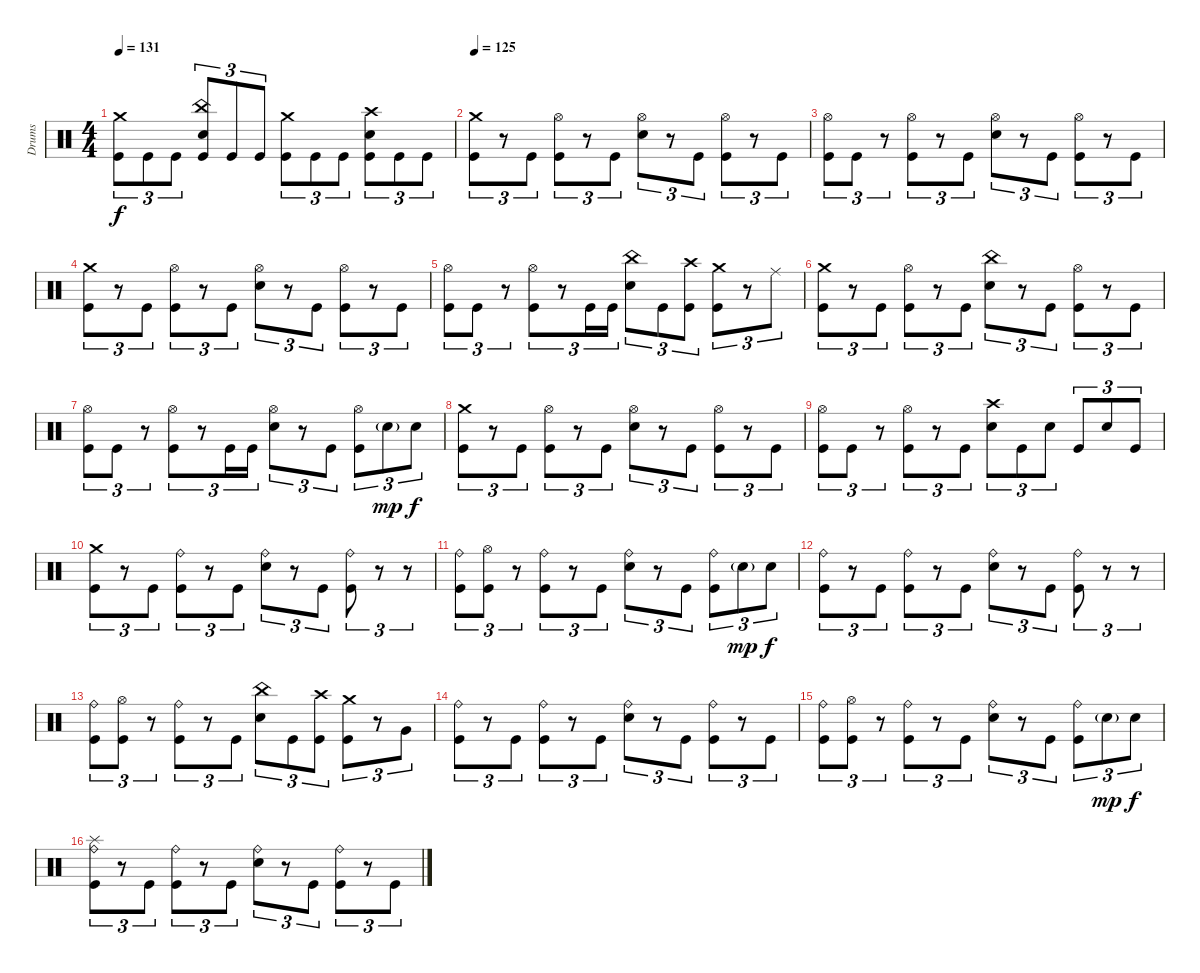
\track ("Drums" "Drums") {instrument percussion}
\staff {score}
\articulation defaults
\ts (4 4)
\tempo 131
\clef neutral
\ks c
("Crash medium (hit)" "Kick (hit)").8{tu (3 2) dy f} "Kick (hit)".8{tu (3 2)} "Kick (hit)".8{tu (3 2)} ("China (hit)" "Electric Snare (hit)" "Kick (hit)").8{tu (3 2)} "Kick (hit)".8{tu (3 2)} "Kick (hit)".8{tu (3 2)} ("Crash medium (hit)" "Kick (hit)").8{tu (3 2)} "Kick (hit)".8{tu (3 2)} "Kick (hit)".8{tu (3 2)} ("Crash high (hit)" "Electric Snare (hit)" "Kick (hit)").8{tu (3 2)} "Kick (hit)".8{tu (3 2)} "Kick (hit)".8{tu (3 2)} |
\tempo 125
("Crash medium (hit)" "Kick (hit)").8{tu (3 2)} r.8{tu (3 2)} "Kick (hit)".8{tu (3 2)} ("Hi-Hat (open)" "Kick (hit)").8{tu (3 2)} r.8{tu (3 2)} "Kick (hit)".8{tu (3 2)} ("Hi-Hat (open)" "Electric Snare (hit)").8{tu (3 2)} r.8{tu (3 2)} "Kick (hit)".8{tu (3 2)} ("Hi-Hat (open)" "Kick (hit)").8{tu (3 2)} r.8{tu (3 2)} "Kick (hit)".8{tu (3 2)} |
("Hi-Hat (open)" "Kick (hit)").8{tu (3 2)} "Kick (hit)".8{tu (3 2)} r.8{tu (3 2)} ("Hi-Hat (open)" "Kick (hit)").8{tu (3 2)} r.8{tu (3 2)} "Kick (hit)".8{tu (3 2)} ("Hi-Hat (open)" "Electric Snare (hit)").8{tu (3 2)} r.8{tu (3 2)} "Kick (hit)".8{tu (3 2)} ("Hi-Hat (open)" "Kick (hit)").8{tu (3 2)} r.8{tu (3 2)} "Kick (hit)".8{tu (3 2)} |
("Crash medium (hit)" "Kick (hit)").8{tu (3 2)} r.8{tu (3 2)} "Kick (hit)".8{tu (3 2)} ("Hi-Hat (open)" "Kick (hit)").8{tu (3 2)} r.8{tu (3 2)} "Kick (hit)".8{tu (3 2)} ("Hi-Hat (open)" "Electric Snare (hit)").8{tu (3 2)} r.8{tu (3 2)} "Kick (hit)".8{tu (3 2)} ("Hi-Hat (open)" "Kick (hit)").8{tu (3 2)} r.8{tu (3 2)} "Kick (hit)".8{tu (3 2)} |
("Hi-Hat (open)" "Kick (hit)").8{tu (3 2)} "Kick (hit)".8{tu (3 2)} r.8{tu (3 2)} ("Hi-Hat (open)" "Kick (hit)").8{tu (3 2)} r.8{tu (3 2)} "Kick (hit)".16{tu (3 2)} "Kick (hit)".16{tu (3 2)} ("China (hit)" "Electric Snare (hit)").8{tu (3 2)} "Kick (hit)".8{tu (3 2)} ("Crash high (hit)" "Kick (hit)").8{tu (3 2)} ("Crash medium (hit)" "Kick (hit)").8{tu (3 2)} r.8{tu (3 2)} "Ride (middle)".8{tu (3 2)} |
("Crash medium (hit)" "Kick (hit)").8{tu (3 2)} r.8{tu (3 2)} "Kick (hit)".8{tu (3 2)} ("Hi-Hat (open)" "Kick (hit)").8{tu (3 2)} r.8{tu (3 2)} "Kick (hit)".8{tu (3 2)} ("China (hit)" "Electric Snare (hit)").8{tu (3 2)} r.8{tu (3 2)} "Kick (hit)".8{tu (3 2)} ("Hi-Hat (open)" "Kick (hit)").8{tu (3 2)} r.8{tu (3 2)} "Kick (hit)".8{tu (3 2)} |
("Hi-Hat (open)" "Kick (hit)").8{tu (3 2)} "Kick (hit)".8{tu (3 2)} r.8{tu (3 2)} ("Hi-Hat (open)" "Kick (hit)").8{tu (3 2)} r.8{tu (3 2)} "Kick (hit)".16{tu (3 2)} "Kick (hit)".16{tu (3 2)} ("Hi-Hat (open)" "Electric Snare (hit)").8{tu (3 2)} r.8{tu (3 2)} "Kick (hit)".8{tu (3 2)} ("Hi-Hat (open)" "Kick (hit)").8{tu (3 2)} "Electric Snare (hit)"{g}.8{tu (3 2) dy mp} "Electric Snare (hit)".8{tu (3 2) dy f} |
("Crash medium (hit)" "Kick (hit)").8{tu (3 2)} r.8{tu (3 2)} "Kick (hit)".8{tu (3 2)} ("Hi-Hat (open)" "Kick (hit)").8{tu (3 2)} r.8{tu (3 2)} "Kick (hit)".8{tu (3 2)} ("Hi-Hat (open)" "Electric Snare (hit)").8{tu (3 2)} r.8{tu (3 2)} "Kick (hit)".8{tu (3 2)} ("Hi-Hat (open)" "Kick (hit)").8{tu (3 2)} r.8{tu (3 2)} "Kick (hit)".8{tu (3 2)} |
("Hi-Hat (open)" "Kick (hit)").8{tu (3 2)} "Kick (hit)".8{tu (3 2)} r.8{tu (3 2)} ("Hi-Hat (open)" "Kick (hit)").8{tu (3 2)} r.8{tu (3 2)} "Kick (hit)".8{tu (3 2)} ("Crash high (hit)" "Electric Snare (hit)").8{tu (3 2)} "Kick (hit)".8{tu (3 2)} "Electric Snare (hit)".8{tu (3 2)} "Kick (hit)".8{tu (3 2)} "Electric Snare (hit)".8{tu (3 2)} "Kick (hit)".8{tu (3 2)} |
("Crash medium (hit)" "Kick (hit)").8{tu (3 2)} r.8{tu (3 2)} "Kick (hit)".8{tu (3 2)} ("Ride (bell)" "Kick (hit)").8{tu (3 2)} r.8{tu (3 2)} "Kick (hit)".8{tu (3 2)} ("Ride (bell)" "Electric Snare (hit)").8{tu (3 2)} r.8{tu (3 2)} "Kick (hit)".8{tu (3 2)} ("Ride (bell)" "Kick (hit)").8{tu (3 2)} r.8{tu (3 2)} r.8{tu (3 2)} |
("Ride (bell)" "Kick (hit)").8{tu (3 2)} ("Hi-Hat (open)" "Kick (hit)").8{tu (3 2)} r.8{tu (3 2)} ("Ride (bell)" "Kick (hit)").8{tu (3 2)} r.8{tu (3 2)} "Kick (hit)".8{tu (3 2)} ("Ride (bell)" "Electric Snare (hit)").8{tu (3 2)} r.8{tu (3 2)} "Kick (hit)".8{tu (3 2)} ("Ride (bell)" "Kick (hit)").8{tu (3 2)} "Electric Snare (hit)"{g}.8{tu (3 2) dy mp} "Electric Snare (hit)".8{tu (3 2) dy f} |
("Ride (bell)" "Kick (hit)").8{tu (3 2)} r.8{tu (3 2)} "Kick (hit)".8{tu (3 2)} ("Ride (bell)" "Kick (hit)").8{tu (3 2)} r.8{tu (3 2)} "Kick (hit)".8{tu (3 2)} ("Ride (bell)" "Electric Snare (hit)").8{tu (3 2)} r.8{tu (3 2)} "Kick (hit)".8{tu (3 2)} ("Ride (bell)" "Kick (hit)").8{tu (3 2)} r.8{tu (3 2)} r.8{tu (3 2)} |
("Ride (bell)" "Kick (hit)").8{tu (3 2)} ("Hi-Hat (open)" "Kick (hit)").8{tu (3 2)} r.8{tu (3 2)} ("Ride (bell)" "Kick (hit)").8{tu (3 2)} r.8{tu (3 2)} "Kick (hit)".8{tu (3 2)} ("China (hit)" "Electric Snare (hit)").8{tu (3 2)} "Kick (hit)".8{tu (3 2)} ("Crash high (hit)" "Kick (hit)").8{tu (3 2)} ("Crash medium (hit)" "Kick (hit)").8{tu (3 2)} r.8{tu (3 2)} "Very Low Tom (hit)".8{tu (3 2)} |
("Ride (bell)" "Kick (hit)").8{tu (3 2)} r.8{tu (3 2)} "Kick (hit)".8{tu (3 2)} ("Ride (bell)" "Kick (hit)").8{tu (3 2)} r.8{tu (3 2)} "Kick (hit)".8{tu (3 2)} ("Ride (bell)" "Electric Snare (hit)").8{tu (3 2)} r.8{tu (3 2)} "Kick (hit)".8{tu (3 2)} ("Ride (bell)" "Kick (hit)").8{tu (3 2)} r.8{tu (3 2)} "Kick (hit)".8{tu (3 2)} |
("Ride (bell)" "Kick (hit)").8{tu (3 2)} ("Hi-Hat (open)" "Kick (hit)").8{tu (3 2)} r.8{tu (3 2)} ("Ride (bell)" "Kick (hit)").8{tu (3 2)} r.8{tu (3 2)} "Kick (hit)".8{tu (3 2)} ("Ride (bell)" "Electric Snare (hit)").8{tu (3 2)} r.8{tu (3 2)} "Kick (hit)".8{tu (3 2)} ("Ride (bell)" "Kick (hit)").8{tu (3 2)} "Electric Snare (hit)"{g}.8{tu (3 2) dy mp} "Electric Snare (hit)".8{tu (3 2) dy f} |
("Splash (hit)" "Ride (bell)" "Kick (hit)").8{tu (3 2)} r.8{tu (3 2)} "Kick (hit)".8{tu (3 2)} ("Ride (bell)" "Kick (hit)").8{tu (3 2)} r.8{tu (3 2)} "Kick (hit)".8{tu (3 2)} ("Ride (bell)" "Electric Snare (hit)").8{tu (3 2)} r.8{tu (3 2)} "Kick (hit)".8{tu (3 2)} ("Ride (bell)" "Kick (hit)").8{tu (3 2)} r.8{tu (3 2)} "Kick (hit)".8{tu (3 2)}
